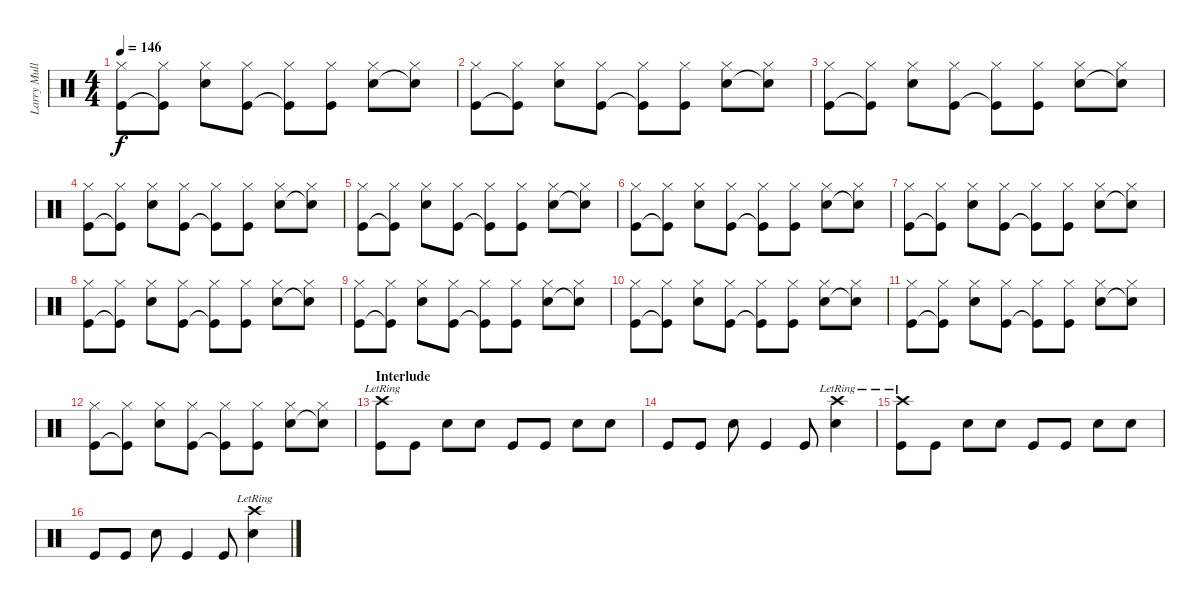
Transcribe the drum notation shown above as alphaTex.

\track ("Larry Mullen" "Larry Mull") {instrument percussion}
\staff {score}
\articulation defaults
\ts (4 4)
\tempo 146
\clef neutral
\ks c
("Hi-Hat (closed)" "Kick (hit)").8{dy f} ("Hi-Hat (closed)" "Kick (hit)"{t}).8 ("Hi-Hat (closed)" "Snare (hit) 2").8 ("Hi-Hat (closed)" "Kick (hit)").8 ("Hi-Hat (closed)" "Kick (hit)"{t}).8 ("Hi-Hat (closed)" "Kick (hit)").8 ("Hi-Hat (closed)" "Snare (hit) 2").8 ("Hi-Hat (closed)" "Snare (hit) 2"{t}).8 |
("Hi-Hat (closed)" "Kick (hit)").8 ("Hi-Hat (closed)" "Kick (hit)"{t}).8 ("Hi-Hat (closed)" "Snare (hit) 2").8 ("Hi-Hat (closed)" "Kick (hit)").8 ("Hi-Hat (closed)" "Kick (hit)"{t}).8 ("Hi-Hat (closed)" "Kick (hit)").8 ("Hi-Hat (closed)" "Snare (hit) 2").8 ("Hi-Hat (closed)" "Snare (hit) 2"{t}).8 |
("Hi-Hat (closed)" "Kick (hit)").8 ("Hi-Hat (closed)" "Kick (hit)"{t}).8 ("Hi-Hat (closed)" "Snare (hit) 2").8 ("Hi-Hat (closed)" "Kick (hit)").8 ("Hi-Hat (closed)" "Kick (hit)"{t}).8 ("Hi-Hat (closed)" "Kick (hit)").8 ("Hi-Hat (closed)" "Snare (hit) 2").8 ("Hi-Hat (closed)" "Snare (hit) 2"{t}).8 |
("Hi-Hat (closed)" "Kick (hit)").8 ("Hi-Hat (closed)" "Kick (hit)"{t}).8 ("Hi-Hat (closed)" "Snare (hit) 2").8 ("Hi-Hat (closed)" "Kick (hit)").8 ("Hi-Hat (closed)" "Kick (hit)"{t}).8 ("Hi-Hat (closed)" "Kick (hit)").8 ("Hi-Hat (closed)" "Snare (hit) 2").8 ("Hi-Hat (closed)" "Snare (hit) 2"{t}).8 |
("Hi-Hat (closed)" "Kick (hit)").8 ("Hi-Hat (closed)" "Kick (hit)"{t}).8 ("Hi-Hat (closed)" "Snare (hit) 2").8 ("Hi-Hat (closed)" "Kick (hit)").8 ("Hi-Hat (closed)" "Kick (hit)"{t}).8 ("Hi-Hat (closed)" "Kick (hit)").8 ("Hi-Hat (closed)" "Snare (hit) 2").8 ("Hi-Hat (closed)" "Snare (hit) 2"{t}).8 |
("Hi-Hat (closed)" "Kick (hit)").8 ("Hi-Hat (closed)" "Kick (hit)"{t}).8 ("Hi-Hat (closed)" "Snare (hit) 2").8 ("Hi-Hat (closed)" "Kick (hit)").8 ("Hi-Hat (closed)" "Kick (hit)"{t}).8 ("Hi-Hat (closed)" "Kick (hit)").8 ("Hi-Hat (closed)" "Snare (hit) 2").8 ("Hi-Hat (closed)" "Snare (hit) 2"{t}).8 |
("Hi-Hat (closed)" "Kick (hit)").8 ("Hi-Hat (closed)" "Kick (hit)"{t}).8 ("Hi-Hat (closed)" "Snare (hit) 2").8 ("Hi-Hat (closed)" "Kick (hit)").8 ("Hi-Hat (closed)" "Kick (hit)"{t}).8 ("Hi-Hat (closed)" "Kick (hit)").8 ("Hi-Hat (closed)" "Snare (hit) 2").8 ("Hi-Hat (closed)" "Snare (hit) 2"{t}).8 |
("Hi-Hat (closed)" "Kick (hit)").8 ("Hi-Hat (closed)" "Kick (hit)"{t}).8 ("Hi-Hat (closed)" "Snare (hit) 2").8 ("Hi-Hat (closed)" "Kick (hit)").8 ("Hi-Hat (closed)" "Kick (hit)"{t}).8 ("Hi-Hat (closed)" "Kick (hit)").8 ("Hi-Hat (closed)" "Snare (hit) 2").8 ("Hi-Hat (closed)" "Snare (hit) 2"{t}).8 |
("Hi-Hat (closed)" "Kick (hit)").8 ("Hi-Hat (closed)" "Kick (hit)"{t}).8 ("Hi-Hat (closed)" "Snare (hit) 2").8 ("Hi-Hat (closed)" "Kick (hit)").8 ("Hi-Hat (closed)" "Kick (hit)"{t}).8 ("Hi-Hat (closed)" "Kick (hit)").8 ("Hi-Hat (closed)" "Snare (hit) 2").8 ("Hi-Hat (closed)" "Snare (hit) 2"{t}).8 |
("Hi-Hat (closed)" "Kick (hit)").8 ("Hi-Hat (closed)" "Kick (hit)"{t}).8 ("Hi-Hat (closed)" "Snare (hit) 2").8 ("Hi-Hat (closed)" "Kick (hit)").8 ("Hi-Hat (closed)" "Kick (hit)"{t}).8 ("Hi-Hat (closed)" "Kick (hit)").8 ("Hi-Hat (closed)" "Snare (hit) 2").8 ("Hi-Hat (closed)" "Snare (hit) 2"{t}).8 |
("Hi-Hat (closed)" "Kick (hit)").8 ("Hi-Hat (closed)" "Kick (hit)"{t}).8 ("Hi-Hat (closed)" "Snare (hit) 2").8 ("Hi-Hat (closed)" "Kick (hit)").8 ("Hi-Hat (closed)" "Kick (hit)"{t}).8 ("Hi-Hat (closed)" "Kick (hit)").8 ("Hi-Hat (closed)" "Snare (hit) 2").8 ("Hi-Hat (closed)" "Snare (hit) 2"{t}).8 |
("Hi-Hat (closed)" "Kick (hit)").8 ("Hi-Hat (closed)" "Kick (hit)"{t}).8 ("Hi-Hat (closed)" "Snare (hit) 2").8 ("Hi-Hat (closed)" "Kick (hit)").8 ("Hi-Hat (closed)" "Kick (hit)"{t}).8 ("Hi-Hat (closed)" "Kick (hit)").8 ("Hi-Hat (closed)" "Snare (hit) 2").8 ("Hi-Hat (closed)" "Snare (hit) 2"{t}).8 |
\section ("" "Interlude")
("Crash high (hit)"{lr} "Kick (hit)").8 "Kick (hit)".8 "Snare (hit) 2".8 "Snare (hit) 2".8 "Kick (hit)".8 "Kick (hit)".8 "Snare (hit) 2".8 "Snare (hit) 2".8 |
"Kick (hit)".8 "Kick (hit)".8 "Snare (hit) 2".8 "Kick (hit)".4 "Kick (hit)".8 ("Crash high (hit)"{lr} "Snare (hit) 2").4 |
("Crash high (hit)"{lr} "Kick (hit)").8 "Kick (hit)".8 "Snare (hit) 2".8 "Snare (hit) 2".8 "Kick (hit)".8 "Kick (hit)".8 "Snare (hit) 2".8 "Snare (hit) 2".8 |
"Kick (hit)".8 "Kick (hit)".8 "Snare (hit) 2".8 "Kick (hit)".4 "Kick (hit)".8 ("Crash high (hit)"{lr} "Snare (hit) 2").4
